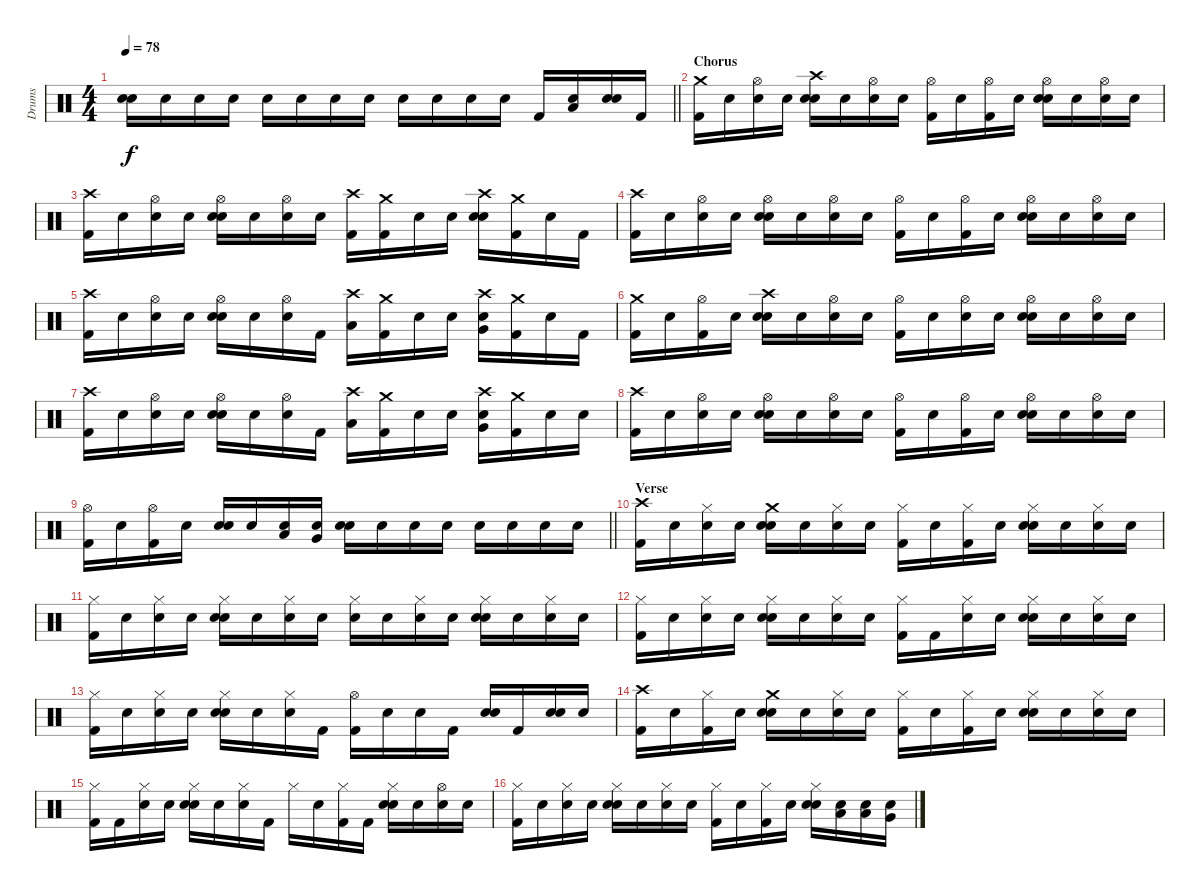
\track ("Drums" "Drums") {instrument percussion}
\staff {score}
\articulation defaults
\ts (4 4)
\tempo 78
\clef neutral
\barLineRight lightlight
\ks c
("Snare (hit) 2" "Snare (hit) 2").16{bd 30 dy f} "Snare (hit)".16 "Snare (hit)".16 "Snare (hit)".16 "Snare (hit)".16 "Snare (hit)".16 "Snare (hit)".16 "Snare (hit)".16 "Snare (hit)".16 "Snare (hit) 2".16 "Snare (hit) 2".16 "Snare (hit)".16 "Kick (hit) 2".16 ("Low Floor Tom (hit)" "Snare (hit)").16 ("Snare (hit) 2" "Snare (hit)").16 "Kick (hit) 2".16 |
\section ("" "Chorus")
("Crash medium (hit)" "Kick (hit) 2").16 "Snare (hit)".16 ("Hi-Hat (open)" "Snare (hit)").16 "Snare (hit)".16 ("Crash high (hit)" "Snare (hit) 2" "Snare (hit)").16 "Snare (hit)".16 ("Hi-Hat (open)" "Snare (hit)").16 "Snare (hit)".16 ("Hi-Hat (open)" "Kick (hit) 2").16 "Snare (hit)".16 ("Hi-Hat (open)" "Kick (hit) 2").16 "Snare (hit)".16 ("Hi-Hat (open)" "Snare (hit) 2" "Snare (hit)").16 "Snare (hit)".16 ("Hi-Hat (open)" "Snare (hit)").16 "Snare (hit)".16 |
("Crash high (hit)" "Kick (hit) 2").16 "Snare (hit)".16 ("Hi-Hat (open)" "Snare (hit)").16 "Snare (hit)".16 ("Hi-Hat (open)" "Snare (hit) 2" "Snare (hit)").16 "Snare (hit)".16 ("Hi-Hat (open)" "Snare (hit)").16 "Snare (hit)".16 ("Crash high (hit)" "Kick (hit) 2").16 ("Crash medium (hit)" "Kick (hit) 2").16 "Snare (hit)".16 "Snare (hit)".16 ("Crash high (hit)" "Snare (hit) 2" "Snare (hit)").16 ("Crash medium (hit)" "Kick (hit) 2").16 "Snare (hit)".16 "Kick (hit) 2".16 |
("Crash high (hit)" "Kick (hit) 2").16 "Snare (hit)".16 ("Hi-Hat (open)" "Snare (hit)").16 "Snare (hit)".16 ("Hi-Hat (open)" "Snare (hit) 2" "Snare (hit)").16 "Snare (hit)".16 ("Hi-Hat (open)" "Snare (hit)").16 "Snare (hit)".16 ("Hi-Hat (open)" "Kick (hit) 2").16 "Snare (hit)".16 ("Hi-Hat (open)" "Kick (hit) 2").16 "Snare (hit)".16 ("Hi-Hat (open)" "Snare (hit) 2" "Snare (hit)").16 "Snare (hit)".16 ("Hi-Hat (open)" "Snare (hit)").16 "Snare (hit)".16 |
("Crash high (hit)" "Kick (hit) 2").16 "Snare (hit)".16 ("Hi-Hat (open)" "Snare (hit)").16 "Snare (hit)".16 ("Hi-Hat (open)" "Snare (hit) 2" "Snare (hit)").16 "Snare (hit)".16 ("Hi-Hat (open)" "Snare (hit)").16 "Kick (hit) 2".16 ("Crash high (hit)" "Low Tom (hit)").16 ("Crash medium (hit)" "Kick (hit) 2").16 "Snare (hit)".16 "Snare (hit)".16 ("Crash high (hit)" "Very Low Tom (hit)" "Snare (hit)").16 ("Crash medium (hit)" "Kick (hit) 2").16 "Snare (hit)".16 "Kick (hit) 2".16 |
("Crash medium (hit)" "Kick (hit) 2").16 "Snare (hit)".16 ("Hi-Hat (open)" "Kick (hit) 2").16 "Snare (hit)".16 ("Crash high (hit)" "Snare (hit) 2" "Snare (hit)").16 "Snare (hit)".16 ("Hi-Hat (open)" "Snare (hit)").16 "Snare (hit)".16 ("Hi-Hat (open)" "Kick (hit) 2").16 "Snare (hit)".16 ("Hi-Hat (open)" "Snare (hit)").16 "Snare (hit)".16 ("Hi-Hat (open)" "Snare (hit) 2" "Snare (hit)").16 "Snare (hit)".16 ("Hi-Hat (open)" "Snare (hit)").16 "Snare (hit)".16 |
("Crash high (hit)" "Kick (hit) 2").16 "Snare (hit)".16 ("Hi-Hat (open)" "Snare (hit)").16 "Snare (hit)".16 ("Hi-Hat (open)" "Snare (hit) 2" "Snare (hit)").16 "Snare (hit)".16 ("Hi-Hat (open)" "Snare (hit)").16 "Kick (hit) 2".16 ("Crash high (hit)" "Low Tom (hit)").16 ("Crash medium (hit)" "Kick (hit) 2").16 "Snare (hit)".16 "Snare (hit)".16 ("Crash high (hit)" "Very Low Tom (hit)" "Snare (hit)").16 ("Crash medium (hit)" "Kick (hit) 2").16 "Snare (hit)".16 "Snare (hit)".16 |
("Crash high (hit)" "Kick (hit) 2").16 "Snare (hit)".16 ("Hi-Hat (open)" "Snare (hit)").16 "Snare (hit)".16 ("Hi-Hat (open)" "Snare (hit) 2" "Snare (hit)").16 "Snare (hit)".16 ("Hi-Hat (open)" "Snare (hit)").16 "Snare (hit)".16 ("Hi-Hat (open)" "Kick (hit) 2").16 "Snare (hit)".16 ("Hi-Hat (open)" "Kick (hit) 2").16 "Snare (hit)".16 ("Hi-Hat (open)" "Snare (hit) 2" "Snare (hit)").16 "Snare (hit)".16 ("Hi-Hat (open)" "Snare (hit)").16 "Snare (hit)".16 |
\barLineRight lightlight
("Hi-Hat (open)" "Kick (hit) 2").16 "Snare (hit)".16 ("Hi-Hat (open)" "Kick (hit) 2").16 "Snare (hit)".16 ("Snare (hit) 2" "Snare (hit) 2").16{bd 30} "Snare (hit)".16 ("Low Tom (hit)" "Snare (hit)").16 ("Very Low Tom (hit)" "Snare (hit)").16 ("Snare (hit) 2" "Snare (hit) 2").16{bd 30} "Snare (hit)".16 "Snare (hit)".16 "Snare (hit)".16 "Snare (hit)".16 "Snare (hit)".16 "Snare (hit)".16 "Snare (hit)".16 |
\section ("" "Verse")
("Crash high (hit)" "Kick (hit) 2").16 "Snare (hit)".16 ("Hi-Hat (closed)" "Snare (hit)").16 "Snare (hit)".16 ("Crash medium (hit)" "Snare (hit) 2" "Snare (hit)").16 "Snare (hit)".16 ("Hi-Hat (closed)" "Snare (hit)").16 "Snare (hit)".16 ("Hi-Hat (closed)" "Kick (hit) 2").16 "Snare (hit)".16 ("Hi-Hat (closed)" "Kick (hit) 2").16 "Snare (hit)".16 ("Hi-Hat (closed)" "Snare (hit) 2" "Snare (hit)").16 "Snare (hit)".16 ("Hi-Hat (closed)" "Snare (hit)").16 "Snare (hit)".16 |
("Hi-Hat (closed)" "Kick (hit) 2").16 "Snare (hit)".16 ("Hi-Hat (closed)" "Snare (hit)").16 "Snare (hit)".16 ("Hi-Hat (closed)" "Snare (hit) 2" "Snare (hit)").16 "Snare (hit)".16 ("Hi-Hat (closed)" "Snare (hit)").16 "Snare (hit)".16 ("Hi-Hat (closed)" "Snare (hit)").16 "Snare (hit)".16 ("Hi-Hat (closed)" "Snare (hit)").16 "Snare (hit)".16 ("Hi-Hat (closed)" "Snare (hit) 2" "Snare (hit)").16 "Snare (hit)".16 ("Hi-Hat (closed)" "Snare (hit)").16 "Snare (hit)".16 |
("Hi-Hat (closed)" "Kick (hit) 2").16 "Snare (hit)".16 ("Hi-Hat (closed)" "Snare (hit)").16 "Snare (hit)".16 ("Hi-Hat (closed)" "Snare (hit) 2" "Snare (hit)").16 "Snare (hit)".16 ("Hi-Hat (closed)" "Snare (hit)").16 "Snare (hit)".16 ("Hi-Hat (closed)" "Kick (hit) 2").16 "Kick (hit) 2".16 ("Hi-Hat (closed)" "Snare (hit)").16 "Snare (hit)".16 ("Hi-Hat (closed)" "Snare (hit) 2" "Snare (hit)").16 "Snare (hit)".16 ("Hi-Hat (closed)" "Snare (hit)").16 "Snare (hit)".16 |
("Hi-Hat (closed)" "Kick (hit) 2").16 "Snare (hit)".16 ("Hi-Hat (closed)" "Snare (hit)").16 "Snare (hit)".16 ("Hi-Hat (closed)" "Snare (hit) 2" "Snare (hit)").16 "Snare (hit)".16 ("Hi-Hat (closed)" "Snare (hit)").16 "Kick (hit) 2".16 ("Hi-Hat (open)" "Kick (hit) 2").16 "Snare (hit) 2".16 "Snare (hit) 2".16 "Kick (hit) 2".16 ("Snare (hit) 2" "Snare (hit)").16 "Kick (hit) 2".16 ("Snare (hit) 2" "Snare (hit)").16 "Snare (hit)".16 |
("Crash high (hit)" "Kick (hit) 2").16 "Snare (hit)".16 ("Hi-Hat (closed)" "Kick (hit) 2").16 "Snare (hit)".16 ("Crash medium (hit)" "Snare (hit) 2" "Snare (hit)").16 "Snare (hit)".16 ("Hi-Hat (closed)" "Snare (hit)").16 "Snare (hit)".16 ("Hi-Hat (closed)" "Kick (hit) 2").16 "Snare (hit)".16 ("Hi-Hat (closed)" "Kick (hit) 2").16 "Snare (hit)".16 ("Hi-Hat (closed)" "Snare (hit) 2" "Snare (hit)").16 "Snare (hit)".16 ("Hi-Hat (closed)" "Snare (hit)").16 "Snare (hit)".16 |
("Hi-Hat (closed)" "Kick (hit) 2").16 "Kick (hit) 2".16 ("Hi-Hat (closed)" "Snare (hit)").16 "Snare (hit)".16 ("Hi-Hat (closed)" "Snare (hit) 2" "Snare (hit)").16 "Snare (hit)".16 ("Hi-Hat (closed)" "Snare (hit)").16 "Kick (hit) 2".16 "Hi-Hat (closed)".16 "Snare (hit)".16 ("Hi-Hat (closed)" "Kick (hit) 2").16 "Kick (hit) 2".16 ("Hi-Hat (closed)" "Snare (hit) 2" "Snare (hit)").16 "Snare (hit)".16 ("Hi-Hat (open)" "Snare (hit)").16 "Snare (hit)".16 |
("Hi-Hat (closed)" "Kick (hit) 2").16 "Snare (hit)".16 ("Hi-Hat (closed)" "Snare (hit)").16 "Snare (hit)".16 ("Hi-Hat (closed)" "Snare (hit) 2" "Snare (hit)").16 "Snare (hit)".16 ("Hi-Hat (closed)" "Snare (hit)").16 "Snare (hit)".16 ("Hi-Hat (closed)" "Kick (hit) 2").16 "Snare (hit)".16 ("Hi-Hat (closed)" "Kick (hit) 2").16 "Snare (hit)".16 ("Hi-Hat (closed)" "Snare (hit) 2" "Snare (hit)").16 ("Low Tom (hit)" "Snare (hit)").16 ("Low Floor Tom (hit)" "Snare (hit)").16 ("Very Low Tom (hit)" "Snare (hit)").16
